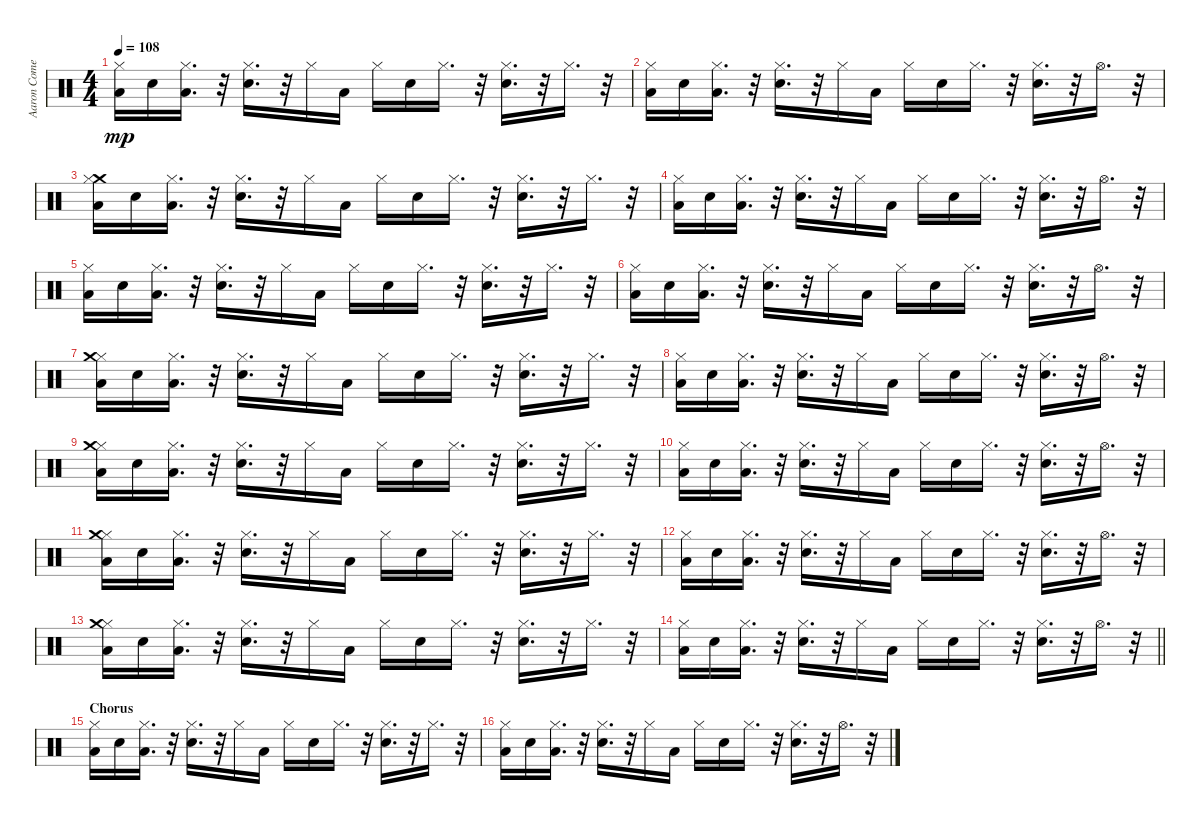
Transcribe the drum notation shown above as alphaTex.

\track ("Aaron Comess" "Aaron Come") {instrument percussion}
\staff {score}
\articulation defaults
\ts (4 4)
\tempo 108
\clef neutral
\ks c
("Low Tom (hit)" "Hi-Hat (closed)").16{dy mp} "Electric Snare (hit)".16 ("Low Tom (hit)" "Hi-Hat (closed)").16{d} r.32 ("Snare (hit) 2" "Hi-Hat (closed)").16{d} r.32 "Hi-Hat (closed)".16 "Low Tom (hit)".16 "Hi-Hat (closed)".16 "Snare (hit) 2".16 "Hi-Hat (closed)".16{d} r.32 ("Snare (hit) 2" "Hi-Hat (closed)").16{d} r.32 "Hi-Hat (closed)".16{d} r.32 |
("Low Tom (hit)" "Hi-Hat (closed)").16 "Electric Snare (hit)".16 ("Low Tom (hit)" "Hi-Hat (closed)").16{d} r.32 ("Snare (hit) 2" "Hi-Hat (closed)").16{d} r.32 "Hi-Hat (closed)".16 "Low Tom (hit)".16 "Hi-Hat (closed)".16 "Snare (hit) 2".16 "Hi-Hat (closed)".16{d} r.32 ("Snare (hit) 2" "Hi-Hat (closed)").16{d} r.32 "Hi-Hat (open)".16{d} r.32 |
("Crash medium (hit)" "Low Tom (hit)" "Hi-Hat (closed)").16 "Electric Snare (hit)".16 ("Low Tom (hit)" "Hi-Hat (closed)").16{d} r.32 ("Snare (hit) 2" "Hi-Hat (closed)").16{d} r.32 "Hi-Hat (closed)".16 "Low Tom (hit)".16 "Hi-Hat (closed)".16 "Snare (hit) 2".16 "Hi-Hat (closed)".16{d} r.32 ("Snare (hit) 2" "Hi-Hat (closed)").16{d} r.32 "Hi-Hat (closed)".16{d} r.32 |
("Low Tom (hit)" "Hi-Hat (closed)").16 "Electric Snare (hit)".16 ("Low Tom (hit)" "Hi-Hat (closed)").16{d} r.32 ("Snare (hit) 2" "Hi-Hat (closed)").16{d} r.32 "Hi-Hat (closed)".16 "Low Tom (hit)".16 "Hi-Hat (closed)".16 "Snare (hit) 2".16 "Hi-Hat (closed)".16{d} r.32 ("Snare (hit) 2" "Hi-Hat (closed)").16{d} r.32 "Hi-Hat (open)".16{d} r.32 |
("Low Tom (hit)" "Hi-Hat (closed)").16 "Electric Snare (hit)".16 ("Low Tom (hit)" "Hi-Hat (closed)").16{d} r.32 ("Snare (hit) 2" "Hi-Hat (closed)").16{d} r.32 "Hi-Hat (closed)".16 "Low Tom (hit)".16 "Hi-Hat (closed)".16 "Snare (hit) 2".16 "Hi-Hat (closed)".16{d} r.32 ("Snare (hit) 2" "Hi-Hat (closed)").16{d} r.32 "Hi-Hat (closed)".16{d} r.32 |
("Low Tom (hit)" "Hi-Hat (closed)").16 "Electric Snare (hit)".16 ("Low Tom (hit)" "Hi-Hat (closed)").16{d} r.32 ("Snare (hit) 2" "Hi-Hat (closed)").16{d} r.32 "Hi-Hat (closed)".16 "Low Tom (hit)".16 "Hi-Hat (closed)".16 "Snare (hit) 2".16 "Hi-Hat (closed)".16{d} r.32 ("Snare (hit) 2" "Hi-Hat (closed)").16{d} r.32 "Hi-Hat (open)".16{d} r.32 |
("Low Tom (hit)" "Hi-Hat (closed)" "Crash medium (hit)").16 "Electric Snare (hit)".16 ("Low Tom (hit)" "Hi-Hat (closed)").16{d} r.32 ("Snare (hit) 2" "Hi-Hat (closed)").16{d} r.32 "Hi-Hat (closed)".16 "Low Tom (hit)".16 "Hi-Hat (closed)".16 "Snare (hit) 2".16 "Hi-Hat (closed)".16{d} r.32 ("Snare (hit) 2" "Hi-Hat (closed)").16{d} r.32 "Hi-Hat (closed)".16{d} r.32 |
("Low Tom (hit)" "Hi-Hat (closed)").16 "Electric Snare (hit)".16 ("Low Tom (hit)" "Hi-Hat (closed)").16{d} r.32 ("Snare (hit) 2" "Hi-Hat (closed)").16{d} r.32 "Hi-Hat (closed)".16 "Low Tom (hit)".16 "Hi-Hat (closed)".16 "Snare (hit) 2".16 "Hi-Hat (closed)".16{d} r.32 ("Snare (hit) 2" "Hi-Hat (closed)").16{d} r.32 "Hi-Hat (open)".16{d} r.32 |
("Low Tom (hit)" "Hi-Hat (closed)" "Crash medium (hit)").16 "Electric Snare (hit)".16 ("Low Tom (hit)" "Hi-Hat (closed)").16{d} r.32 ("Snare (hit) 2" "Hi-Hat (closed)").16{d} r.32 "Hi-Hat (closed)".16 "Low Tom (hit)".16 "Hi-Hat (closed)".16 "Snare (hit) 2".16 "Hi-Hat (closed)".16{d} r.32 ("Snare (hit) 2" "Hi-Hat (closed)").16{d} r.32 "Hi-Hat (closed)".16{d} r.32 |
("Low Tom (hit)" "Hi-Hat (closed)").16 "Electric Snare (hit)".16 ("Low Tom (hit)" "Hi-Hat (closed)").16{d} r.32 ("Snare (hit) 2" "Hi-Hat (closed)").16{d} r.32 "Hi-Hat (closed)".16 "Low Tom (hit)".16 "Hi-Hat (closed)".16 "Snare (hit) 2".16 "Hi-Hat (closed)".16{d} r.32 ("Snare (hit) 2" "Hi-Hat (closed)").16{d} r.32 "Hi-Hat (open)".16{d} r.32 |
("Low Tom (hit)" "Hi-Hat (closed)" "Crash medium (hit)").16 "Electric Snare (hit)".16 ("Low Tom (hit)" "Hi-Hat (closed)").16{d} r.32 ("Snare (hit) 2" "Hi-Hat (closed)").16{d} r.32 "Hi-Hat (closed)".16 "Low Tom (hit)".16 "Hi-Hat (closed)".16 "Snare (hit) 2".16 "Hi-Hat (closed)".16{d} r.32 ("Snare (hit) 2" "Hi-Hat (closed)").16{d} r.32 "Hi-Hat (closed)".16{d} r.32 |
("Low Tom (hit)" "Hi-Hat (closed)").16 "Electric Snare (hit)".16 ("Low Tom (hit)" "Hi-Hat (closed)").16{d} r.32 ("Snare (hit) 2" "Hi-Hat (closed)").16{d} r.32 "Hi-Hat (closed)".16 "Low Tom (hit)".16 "Hi-Hat (closed)".16 "Snare (hit) 2".16 "Hi-Hat (closed)".16{d} r.32 ("Snare (hit) 2" "Hi-Hat (closed)").16{d} r.32 "Hi-Hat (open)".16{d} r.32 |
("Low Tom (hit)" "Hi-Hat (closed)" "Crash medium (hit)").16 "Electric Snare (hit)".16 ("Low Tom (hit)" "Hi-Hat (closed)").16{d} r.32 ("Snare (hit) 2" "Hi-Hat (closed)").16{d} r.32 "Hi-Hat (closed)".16 "Low Tom (hit)".16 "Hi-Hat (closed)".16 "Snare (hit) 2".16 "Hi-Hat (closed)".16{d} r.32 ("Snare (hit) 2" "Hi-Hat (closed)").16{d} r.32 "Hi-Hat (closed)".16{d} r.32 |
\barLineRight lightlight
("Low Tom (hit)" "Hi-Hat (closed)").16 "Electric Snare (hit)".16 ("Low Tom (hit)" "Hi-Hat (closed)").16{d} r.32 ("Snare (hit) 2" "Hi-Hat (closed)").16{d} r.32 "Hi-Hat (closed)".16 "Low Tom (hit)".16 "Hi-Hat (closed)".16 "Snare (hit) 2".16 "Hi-Hat (closed)".16{d} r.32 ("Snare (hit) 2" "Hi-Hat (closed)").16{d} r.32 "Hi-Hat (open)".16{d} r.32 |
\section ("" "Chorus")
("Low Tom (hit)" "Hi-Hat (closed)").16 "Electric Snare (hit)".16 ("Low Tom (hit)" "Hi-Hat (closed)").16{d} r.32 ("Snare (hit) 2" "Hi-Hat (closed)").16{d} r.32 "Hi-Hat (closed)".16 "Low Tom (hit)".16 "Hi-Hat (closed)".16 "Snare (hit) 2".16 "Hi-Hat (closed)".16{d} r.32 ("Snare (hit) 2" "Hi-Hat (closed)").16{d} r.32 "Hi-Hat (closed)".16{d} r.32 |
("Low Tom (hit)" "Hi-Hat (closed)").16 "Electric Snare (hit)".16 ("Low Tom (hit)" "Hi-Hat (closed)").16{d} r.32 ("Snare (hit) 2" "Hi-Hat (closed)").16{d} r.32 "Hi-Hat (closed)".16 "Low Tom (hit)".16 "Hi-Hat (closed)".16 "Snare (hit) 2".16 "Hi-Hat (closed)".16{d} r.32 ("Snare (hit) 2" "Hi-Hat (closed)").16{d} r.32 "Hi-Hat (open)".16{d} r.32
